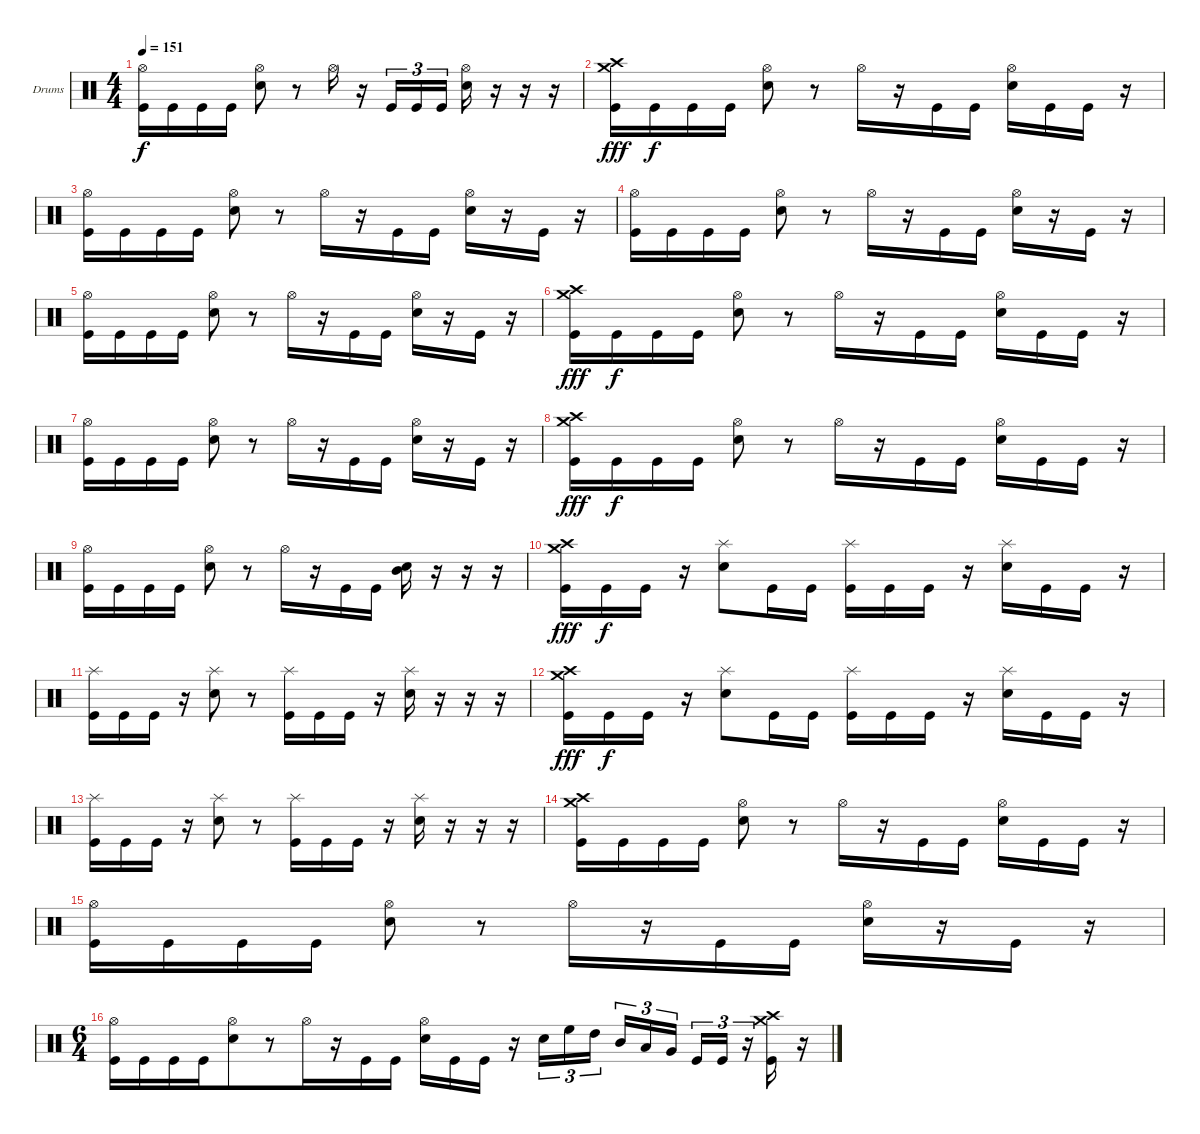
\bracketExtendMode groupsimilarinstruments
\firstSystemTrackNameOrientation horizontal
\otherSystemsTrackNameOrientation horizontal
\track ("Ударные" "Drums") {instrument percussion}
\staff {score}
\articulation defaults
\ts (4 4)
\tempo 151
\clef neutral
\ks c
("Hi-Hat (open)" "Kick (hit)").16{dy f} "Kick (hit)".16 "Kick (hit)".16 "Kick (hit)".16 ("Hi-Hat (open)" "Snare (hit) 2").8 r.8 "Hi-Hat (open)".16 r.16 "Kick (hit)".16{tu (3 2)} "Kick (hit)".16{tu (3 2)} "Kick (hit)".16{tu (3 2)} ("Hi-Hat (open)" "Snare (hit) 2").16 r.16 r.16 r.16 |
("Crash medium (hit)" "Crash high (hit)" "Kick (hit)").16{dy fff} "Kick (hit)".16{dy f} "Kick (hit)".16 "Kick (hit)".16 ("Hi-Hat (open)" "Snare (hit) 2").8 r.8 "Hi-Hat (open)".16 r.16 "Kick (hit)".16 "Kick (hit)".16 ("Hi-Hat (open)" "Snare (hit) 2").16 "Kick (hit)".16 "Kick (hit)".16 r.16 |
("Hi-Hat (open)" "Kick (hit)").16 "Kick (hit)".16 "Kick (hit)".16 "Kick (hit)".16 ("Hi-Hat (open)" "Snare (hit) 2").8 r.8 "Hi-Hat (open)".16 r.16 "Kick (hit)".16 "Kick (hit)".16 ("Hi-Hat (open)" "Snare (hit) 2").16 r.16 "Kick (hit)".16 r.16 |
("Hi-Hat (open)" "Kick (hit)").16 "Kick (hit)".16 "Kick (hit)".16 "Kick (hit)".16 ("Hi-Hat (open)" "Snare (hit) 2").8 r.8 "Hi-Hat (open)".16 r.16 "Kick (hit)".16 "Kick (hit)".16 ("Hi-Hat (open)" "Snare (hit) 2").16 r.16 "Kick (hit)".16 r.16 |
("Hi-Hat (open)" "Kick (hit)").16 "Kick (hit)".16 "Kick (hit)".16 "Kick (hit)".16 ("Hi-Hat (open)" "Snare (hit) 2").8 r.8 "Hi-Hat (open)".16 r.16 "Kick (hit)".16 "Kick (hit)".16 ("Hi-Hat (open)" "Snare (hit) 2").16 r.16 "Kick (hit)".16 r.16 |
("Crash medium (hit)" "Crash high (hit)" "Kick (hit)").16{dy fff} "Kick (hit)".16{dy f} "Kick (hit)".16 "Kick (hit)".16 ("Hi-Hat (open)" "Snare (hit) 2").8 r.8 "Hi-Hat (open)".16 r.16 "Kick (hit)".16 "Kick (hit)".16 ("Hi-Hat (open)" "Snare (hit) 2").16 "Kick (hit)".16 "Kick (hit)".16 r.16 |
("Hi-Hat (open)" "Kick (hit)").16 "Kick (hit)".16 "Kick (hit)".16 "Kick (hit)".16 ("Hi-Hat (open)" "Snare (hit) 2").8 r.8 "Hi-Hat (open)".16 r.16 "Kick (hit)".16 "Kick (hit)".16 ("Hi-Hat (open)" "Snare (hit) 2").16 r.16 "Kick (hit)".16 r.16 |
("Crash medium (hit)" "Crash high (hit)" "Kick (hit)").16{dy fff} "Kick (hit)".16{dy f} "Kick (hit)".16 "Kick (hit)".16 ("Hi-Hat (open)" "Snare (hit) 2").8 r.8 "Hi-Hat (open)".16 r.16 "Kick (hit)".16 "Kick (hit)".16 ("Hi-Hat (open)" "Snare (hit) 2").16 "Kick (hit)".16 "Kick (hit)".16 r.16 |
("Hi-Hat (open)" "Kick (hit)").16 "Kick (hit)".16 "Kick (hit)".16 "Kick (hit)".16 ("Hi-Hat (open)" "Snare (hit) 2").8 r.8 "Hi-Hat (open)".16 r.16 "Kick (hit)".16 "Kick (hit)".16 ("Snare (hit) 2" "Mid Tom (hit)").16 r.16 r.16 r.16 |
("Crash medium (hit)" "Crash high (hit)" "Kick (hit)").16{dy fff} "Kick (hit)".16{dy f} "Kick (hit)".16 r.16 ("Splash (hit)" "Snare (hit) 2").8 "Kick (hit)".16 "Kick (hit)".16 ("Splash (hit)" "Kick (hit)").16 "Kick (hit)".16 "Kick (hit)".16 r.16 ("Splash (hit)" "Snare (hit) 2").16 "Kick (hit)".16 "Kick (hit)".16 r.16 |
("Splash (hit)" "Kick (hit)").16 "Kick (hit)".16 "Kick (hit)".16 r.16 ("Splash (hit)" "Snare (hit) 2").8 r.8 ("Splash (hit)" "Kick (hit)").16 "Kick (hit)".16 "Kick (hit)".16 r.16 ("Splash (hit)" "Snare (hit) 2").16 r.16 r.16 r.16 |
("Crash medium (hit)" "Crash high (hit)" "Kick (hit)").16{dy fff} "Kick (hit)".16{dy f} "Kick (hit)".16 r.16 ("Splash (hit)" "Snare (hit) 2").8 "Kick (hit)".16 "Kick (hit)".16 ("Splash (hit)" "Kick (hit)").16 "Kick (hit)".16 "Kick (hit)".16 r.16 ("Splash (hit)" "Snare (hit) 2").16 "Kick (hit)".16 "Kick (hit)".16 r.16 |
("Splash (hit)" "Kick (hit)").16 "Kick (hit)".16 "Kick (hit)".16 r.16 ("Splash (hit)" "Snare (hit) 2").8 r.8 ("Splash (hit)" "Kick (hit)").16 "Kick (hit)".16 "Kick (hit)".16 r.16 ("Splash (hit)" "Snare (hit) 2").16 r.16 r.16 r.16 |
("Crash medium (hit)" "Crash high (hit)" "Kick (hit)").16 "Kick (hit)".16 "Kick (hit)".16 "Kick (hit)".16 ("Hi-Hat (open)" "Snare (hit) 2").8 r.8 "Hi-Hat (open)".16 r.16 "Kick (hit)".16 "Kick (hit)".16 ("Hi-Hat (open)" "Snare (hit) 2").16 "Kick (hit)".16 "Kick (hit)".16 r.16 |
("Hi-Hat (open)" "Kick (hit)").16 "Kick (hit)".16 "Kick (hit)".16 "Kick (hit)".16 ("Hi-Hat (open)" "Snare (hit) 2").8 r.8 "Hi-Hat (open)".16 r.16 "Kick (hit)".16 "Kick (hit)".16 ("Hi-Hat (open)" "Snare (hit) 2").16 r.16 "Kick (hit)".16 r.16 |
\ts (6 4)
\beaming (8 6 6)
("Hi-Hat (open)" "Kick (hit)").16 "Kick (hit)".16 "Kick (hit)".16 "Kick (hit)".16 ("Hi-Hat (open)" "Snare (hit) 2").8 r.8 "Hi-Hat (open)".16 r.16 "Kick (hit)".16 "Kick (hit)".16 ("Hi-Hat (open)" "Snare (hit) 2").16 "Kick (hit)".16 "Kick (hit)".16 r.16 "Snare (hit) 2".16{tu (3 2)} "High Floor Tom (hit)".16{tu (3 2)} "High Tom (hit)".16{tu (3 2)} "Mid Tom (hit)".16{tu (3 2)} "Low Tom (hit)".16{tu (3 2)} "Very Low Tom (hit)".16{tu (3 2)} "Kick (hit)".16{tu (3 2)} "Kick (hit)".16{tu (3 2)} r.16{tu (3 2)} ("Crash high (hit)" "Crash medium (hit)" "Kick (hit)").16 r.16
